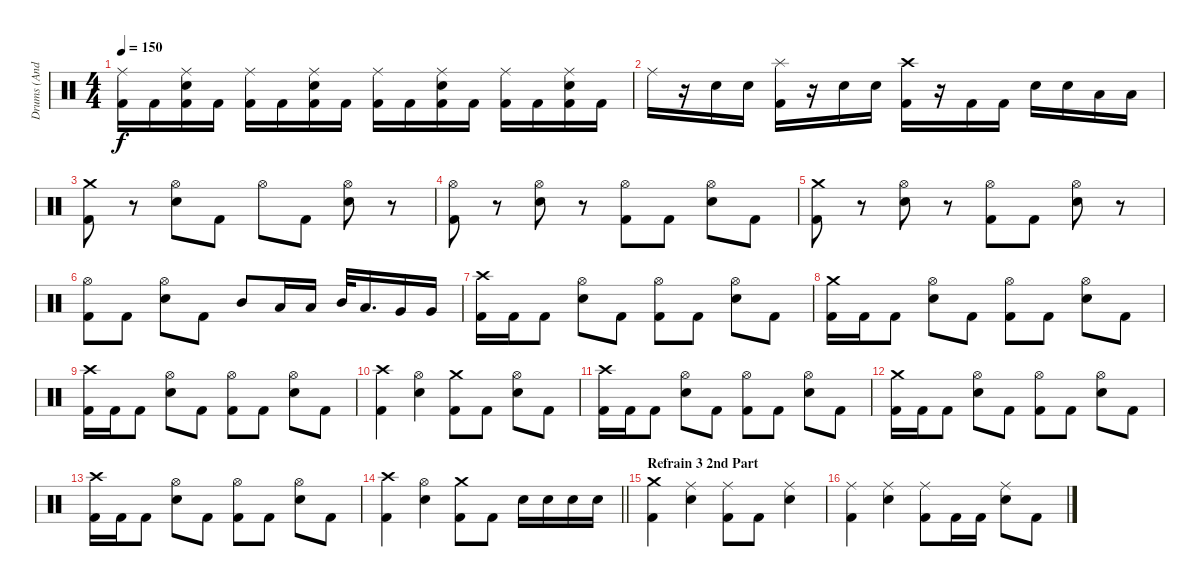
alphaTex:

\track ("Drums (Andy C)" "Drums (And") {instrument percussion}
\staff
\articulation defaults
\ts (4 4)
\tempo 150
\clef neutral
\ks c
("Ride (middle)" "Kick (hit) 2").16{dy f} "Kick (hit) 2".16 ("Ride (middle)" "Kick (hit) 2" "Electric Snare (hit)").16 "Kick (hit) 2".16 ("Ride (middle)" "Kick (hit) 2").16 "Kick (hit) 2".16 ("Ride (middle)" "Kick (hit) 2" "Electric Snare (hit)").16 "Kick (hit) 2".16 ("Ride (middle)" "Kick (hit) 2").16 "Kick (hit) 2".16 ("Ride (middle)" "Kick (hit) 2" "Electric Snare (hit)").16 "Kick (hit) 2".16 ("Ride (middle)" "Kick (hit) 2").16 "Kick (hit) 2".16 ("Ride (middle)" "Kick (hit) 2" "Electric Snare (hit)").16 "Kick (hit) 2".16 |
"Ride (middle)".16 r.16 "Electric Snare (hit)".16 "Electric Snare (hit)".16 ("Splash (hit)" "Kick (hit) 2").16 r.16 "Electric Snare (hit)".16 "Electric Snare (hit)".16 ("Crash high (hit)" "Kick (hit) 2").16 r.16 "Kick (hit) 2".16 "Kick (hit) 2".16 "Electric Snare (hit)".16 "Electric Snare (hit)".16 "Low Tom (hit)".16 "Low Tom (hit)".16 |
("Crash medium (hit)" "Kick (hit) 2").8 r.8 ("Hi-Hat (open)" "Electric Snare (hit)").8 "Kick (hit) 2".8 "Hi-Hat (open)".8 "Kick (hit) 2".8 ("Hi-Hat (open)" "Electric Snare (hit)").8 r.8 |
("Hi-Hat (open)" "Kick (hit) 2").8 r.8 ("Hi-Hat (open)" "Electric Snare (hit)").8 r.8 ("Hi-Hat (open)" "Kick (hit) 2").8 "Kick (hit) 2".8 ("Hi-Hat (open)" "Electric Snare (hit)").8 "Kick (hit) 2".8 |
("Crash medium (hit)" "Kick (hit) 2").8 r.8 ("Hi-Hat (open)" "Electric Snare (hit)").8 r.8 ("Hi-Hat (open)" "Kick (hit) 2").8 "Kick (hit) 2".8 ("Hi-Hat (open)" "Electric Snare (hit)").8 r.8 |
("Hi-Hat (open)" "Kick (hit) 2").8 "Kick (hit) 2".8 ("Hi-Hat (open)" "Electric Snare (hit)").8 "Kick (hit) 2".8 "Mid Tom (hit)".8 "Low Tom (hit)".16 "Low Tom (hit)".16 "Mid Tom (hit)".32 "Low Tom (hit)".16{d} "Very Low Tom (hit)".16 "Very Low Tom (hit)".16 |
("Crash high (hit)" "Kick (hit) 2").16 "Kick (hit) 2".16 "Kick (hit) 2".8 ("Hi-Hat (open)" "Electric Snare (hit)").8 "Kick (hit) 2".8 ("Hi-Hat (open)" "Kick (hit) 2").8 "Kick (hit) 2".8 ("Hi-Hat (open)" "Electric Snare (hit)").8 "Kick (hit) 2".8 |
("Crash medium (hit)" "Kick (hit) 2").16 "Kick (hit) 2".16 "Kick (hit) 2".8 ("Hi-Hat (open)" "Electric Snare (hit)").8 "Kick (hit) 2".8 ("Hi-Hat (open)" "Kick (hit) 2").8 "Kick (hit) 2".8 ("Hi-Hat (open)" "Electric Snare (hit)").8 "Kick (hit) 2".8 |
("Crash high (hit)" "Kick (hit) 2").16 "Kick (hit) 2".16 "Kick (hit) 2".8 ("Hi-Hat (open)" "Electric Snare (hit)").8 "Kick (hit) 2".8 ("Hi-Hat (open)" "Kick (hit) 2").8 "Kick (hit) 2".8 ("Hi-Hat (open)" "Electric Snare (hit)").8 "Kick (hit) 2".8 |
("Crash high (hit)" "Kick (hit) 2").4 ("Hi-Hat (open)" "Electric Snare (hit)").4 ("Crash medium (hit)" "Kick (hit) 2").8 "Kick (hit) 2".8 ("Hi-Hat (open)" "Electric Snare (hit)").8 "Kick (hit) 2".8 |
("Crash high (hit)" "Kick (hit) 2").16 "Kick (hit) 2".16 "Kick (hit) 2".8 ("Hi-Hat (open)" "Electric Snare (hit)").8 "Kick (hit) 2".8 ("Hi-Hat (open)" "Kick (hit) 2").8 "Kick (hit) 2".8 ("Hi-Hat (open)" "Electric Snare (hit)").8 "Kick (hit) 2".8 |
("Crash medium (hit)" "Kick (hit) 2").16 "Kick (hit) 2".16 "Kick (hit) 2".8 ("Hi-Hat (open)" "Electric Snare (hit)").8 "Kick (hit) 2".8 ("Hi-Hat (open)" "Kick (hit) 2").8 "Kick (hit) 2".8 ("Hi-Hat (open)" "Electric Snare (hit)").8 "Kick (hit) 2".8 |
("Crash high (hit)" "Kick (hit) 2").16 "Kick (hit) 2".16 "Kick (hit) 2".8 ("Hi-Hat (open)" "Electric Snare (hit)").8 "Kick (hit) 2".8 ("Hi-Hat (open)" "Kick (hit) 2").8 "Kick (hit) 2".8 ("Hi-Hat (open)" "Electric Snare (hit)").8 "Kick (hit) 2".8 |
\barLineRight lightlight
("Crash high (hit)" "Kick (hit) 2").4 ("Hi-Hat (open)" "Electric Snare (hit)").4 ("Crash medium (hit)" "Kick (hit) 2").8 "Kick (hit) 2".8 "Electric Snare (hit)".16 "Electric Snare (hit)".16 "Electric Snare (hit)".16 "Electric Snare (hit)".16 |
\section ("" "Refrain 3 2nd Part")
("Crash medium (hit)" "Kick (hit) 2").4 ("Ride (middle)" "Electric Snare (hit)").4 ("Ride (middle)" "Kick (hit) 2").8 "Kick (hit) 2".8 ("Ride (middle)" "Electric Snare (hit)").4 |
("Ride (middle)" "Kick (hit) 2").4 ("Ride (middle)" "Electric Snare (hit)").4 ("Ride (middle)" "Kick (hit) 2").8 "Kick (hit) 2".16 "Kick (hit) 2".16 ("Ride (middle)" "Electric Snare (hit)").8 "Kick (hit) 2".8
